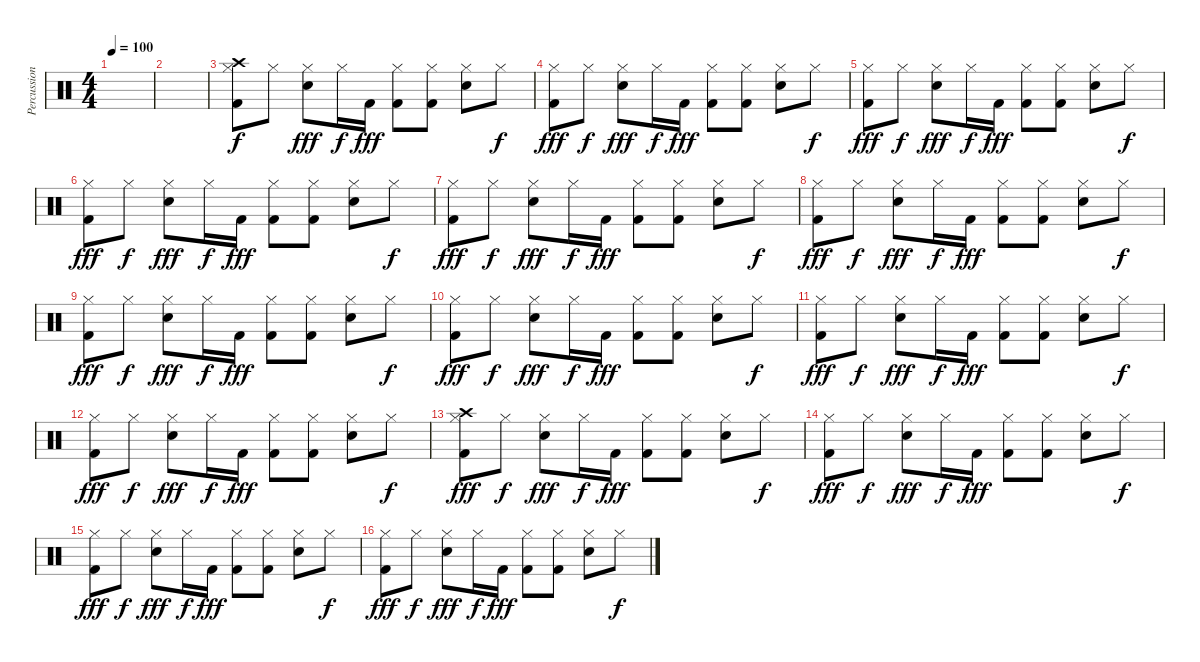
\track ("Percussion" "Percussion") {instrument percussion}
\staff {score}
\articulation defaults
\ts (4 4)
\tempo 100
\clef neutral
\ks c
|
|
("Kick (hit) 2" "Hi-Hat (closed)" "Crash high (hit)").8 "Hi-Hat (closed)".8{dy f} ("Electric Snare (hit)" "Hi-Hat (closed)").8{dy fff} "Hi-Hat (closed)".16{dy f} "Kick (hit) 2".16{dy fff} ("Kick (hit) 2" "Hi-Hat (closed)").8 ("Kick (hit) 2" "Hi-Hat (closed)").8 ("Electric Snare (hit)" "Hi-Hat (closed)").8 "Hi-Hat (closed)".8{dy f} |
("Kick (hit) 2" "Hi-Hat (closed)").8{dy fff} "Hi-Hat (closed)".8{dy f} ("Electric Snare (hit)" "Hi-Hat (closed)").8{dy fff} "Hi-Hat (closed)".16{dy f} "Kick (hit) 2".16{dy fff} ("Kick (hit) 2" "Hi-Hat (closed)").8 ("Kick (hit) 2" "Hi-Hat (closed)").8 ("Electric Snare (hit)" "Hi-Hat (closed)").8 "Hi-Hat (closed)".8{dy f} |
("Kick (hit) 2" "Hi-Hat (closed)").8{dy fff} "Hi-Hat (closed)".8{dy f} ("Electric Snare (hit)" "Hi-Hat (closed)").8{dy fff} "Hi-Hat (closed)".16{dy f} "Kick (hit) 2".16{dy fff} ("Kick (hit) 2" "Hi-Hat (closed)").8 ("Kick (hit) 2" "Hi-Hat (closed)").8 ("Electric Snare (hit)" "Hi-Hat (closed)").8 "Hi-Hat (closed)".8{dy f} |
("Kick (hit) 2" "Hi-Hat (closed)").8{dy fff} "Hi-Hat (closed)".8{dy f} ("Electric Snare (hit)" "Hi-Hat (closed)").8{dy fff} "Hi-Hat (closed)".16{dy f} "Kick (hit) 2".16{dy fff} ("Kick (hit) 2" "Hi-Hat (closed)").8 ("Kick (hit) 2" "Hi-Hat (closed)").8 ("Electric Snare (hit)" "Hi-Hat (closed)").8 "Hi-Hat (closed)".8{dy f} |
("Kick (hit) 2" "Hi-Hat (closed)").8{dy fff} "Hi-Hat (closed)".8{dy f} ("Electric Snare (hit)" "Hi-Hat (closed)").8{dy fff} "Hi-Hat (closed)".16{dy f} "Kick (hit) 2".16{dy fff} ("Kick (hit) 2" "Hi-Hat (closed)").8 ("Kick (hit) 2" "Hi-Hat (closed)").8 ("Electric Snare (hit)" "Hi-Hat (closed)").8 "Hi-Hat (closed)".8{dy f} |
("Kick (hit) 2" "Hi-Hat (closed)").8{dy fff} "Hi-Hat (closed)".8{dy f} ("Electric Snare (hit)" "Hi-Hat (closed)").8{dy fff} "Hi-Hat (closed)".16{dy f} "Kick (hit) 2".16{dy fff} ("Kick (hit) 2" "Hi-Hat (closed)").8 ("Kick (hit) 2" "Hi-Hat (closed)").8 ("Electric Snare (hit)" "Hi-Hat (closed)").8 "Hi-Hat (closed)".8{dy f} |
("Kick (hit) 2" "Hi-Hat (closed)").8{dy fff} "Hi-Hat (closed)".8{dy f} ("Electric Snare (hit)" "Hi-Hat (closed)").8{dy fff} "Hi-Hat (closed)".16{dy f} "Kick (hit) 2".16{dy fff} ("Kick (hit) 2" "Hi-Hat (closed)").8 ("Kick (hit) 2" "Hi-Hat (closed)").8 ("Electric Snare (hit)" "Hi-Hat (closed)").8 "Hi-Hat (closed)".8{dy f} |
("Kick (hit) 2" "Hi-Hat (closed)").8{dy fff} "Hi-Hat (closed)".8{dy f} ("Electric Snare (hit)" "Hi-Hat (closed)").8{dy fff} "Hi-Hat (closed)".16{dy f} "Kick (hit) 2".16{dy fff} ("Kick (hit) 2" "Hi-Hat (closed)").8 ("Kick (hit) 2" "Hi-Hat (closed)").8 ("Electric Snare (hit)" "Hi-Hat (closed)").8 "Hi-Hat (closed)".8{dy f} |
("Kick (hit) 2" "Hi-Hat (closed)").8{dy fff} "Hi-Hat (closed)".8{dy f} ("Electric Snare (hit)" "Hi-Hat (closed)").8{dy fff} "Hi-Hat (closed)".16{dy f} "Kick (hit) 2".16{dy fff} ("Kick (hit) 2" "Hi-Hat (closed)").8 ("Kick (hit) 2" "Hi-Hat (closed)").8 ("Electric Snare (hit)" "Hi-Hat (closed)").8 "Hi-Hat (closed)".8{dy f} |
("Kick (hit) 2" "Hi-Hat (closed)").8{dy fff} "Hi-Hat (closed)".8{dy f} ("Electric Snare (hit)" "Hi-Hat (closed)").8{dy fff} "Hi-Hat (closed)".16{dy f} "Kick (hit) 2".16{dy fff} ("Kick (hit) 2" "Hi-Hat (closed)").8 ("Kick (hit) 2" "Hi-Hat (closed)").8 ("Electric Snare (hit)" "Hi-Hat (closed)").8 "Hi-Hat (closed)".8{dy f} |
("Kick (hit) 2" "Hi-Hat (closed)" "Crash high (hit)").8{dy fff} "Hi-Hat (closed)".8{dy f} ("Electric Snare (hit)" "Hi-Hat (closed)").8{dy fff} "Hi-Hat (closed)".16{dy f} "Kick (hit) 2".16{dy fff} ("Kick (hit) 2" "Hi-Hat (closed)").8 ("Kick (hit) 2" "Hi-Hat (closed)").8 ("Electric Snare (hit)" "Hi-Hat (closed)").8 "Hi-Hat (closed)".8{dy f} |
("Kick (hit) 2" "Hi-Hat (closed)").8{dy fff} "Hi-Hat (closed)".8{dy f} ("Electric Snare (hit)" "Hi-Hat (closed)").8{dy fff} "Hi-Hat (closed)".16{dy f} "Kick (hit) 2".16{dy fff} ("Kick (hit) 2" "Hi-Hat (closed)").8 ("Kick (hit) 2" "Hi-Hat (closed)").8 ("Electric Snare (hit)" "Hi-Hat (closed)").8 "Hi-Hat (closed)".8{dy f} |
("Kick (hit) 2" "Hi-Hat (closed)").8{dy fff} "Hi-Hat (closed)".8{dy f} ("Electric Snare (hit)" "Hi-Hat (closed)").8{dy fff} "Hi-Hat (closed)".16{dy f} "Kick (hit) 2".16{dy fff} ("Kick (hit) 2" "Hi-Hat (closed)").8 ("Kick (hit) 2" "Hi-Hat (closed)").8 ("Electric Snare (hit)" "Hi-Hat (closed)").8 "Hi-Hat (closed)".8{dy f} |
("Kick (hit) 2" "Hi-Hat (closed)").8{dy fff} "Hi-Hat (closed)".8{dy f} ("Electric Snare (hit)" "Hi-Hat (closed)").8{dy fff} "Hi-Hat (closed)".16{dy f} "Kick (hit) 2".16{dy fff} ("Kick (hit) 2" "Hi-Hat (closed)").8 ("Kick (hit) 2" "Hi-Hat (closed)").8 ("Electric Snare (hit)" "Hi-Hat (closed)").8 "Hi-Hat (closed)".8{dy f}
